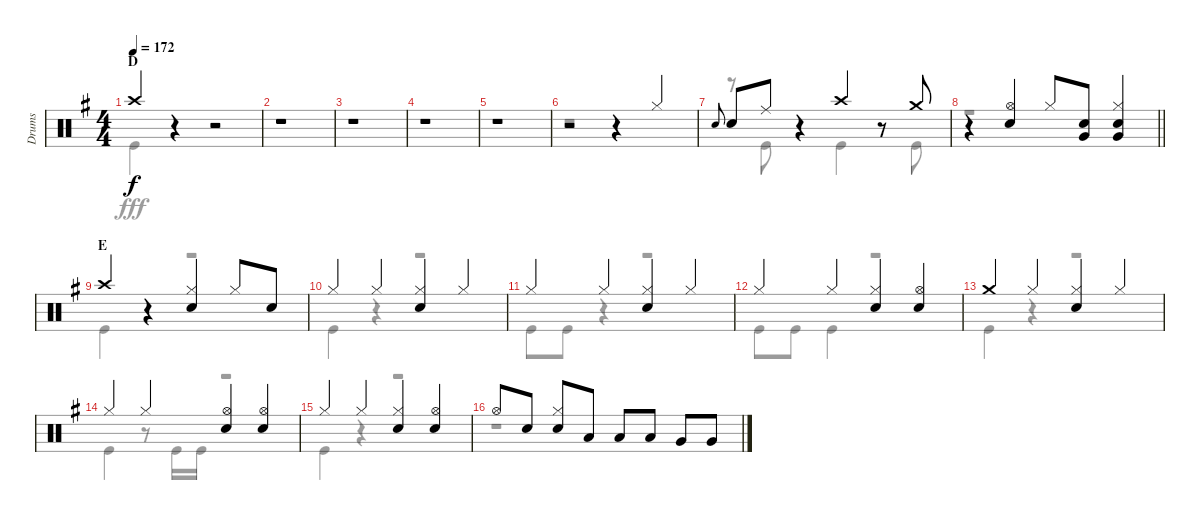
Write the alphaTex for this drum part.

\track ("Drums" "Drums") {instrument percussion}
\staff {score}
\articulation defaults
\voice
\ts (4 4)
\section ("" "D")
\tempo 172
\clef neutral
\ks g "Crash high (hit)".4{dy f}
r.4 r.2 |
r.1 |
r.1 |
r.1 |
r.1 |
r.2 r.4 "Hi-Hat (closed)".4 |
"Snare (hit) 2".8{gr onbeat} "Snare (hit) 2".8 "Ride (middle)".8 r.4 "Crash high (hit)".4 r.8 "Crash medium (hit)".8 |
\barLineRight lightlight
r.4 ("Hi-Hat (open)" "Snare (hit) 2").4 "Hi-Hat (closed)".8 ("Snare (hit) 2" "Very Low Tom (hit)").8 ("Hi-Hat (closed)" "Snare (hit) 2" "Very Low Tom (hit)").4 |
\section ("" "E")
"Crash high (hit)".4 r.4 ("Hi-Hat (closed)" "Snare (hit) 2").4 "Hi-Hat (closed)".8 "Snare (hit) 2".8 |
"Hi-Hat (closed)".4 "Hi-Hat (closed)".4 ("Hi-Hat (closed)" "Snare (hit) 2").4 "Hi-Hat (closed)".4 |
"Hi-Hat (closed)".4 "Hi-Hat (closed)".4 ("Hi-Hat (closed)" "Snare (hit) 2").4 "Hi-Hat (closed)".4 |
"Hi-Hat (closed)".4 "Hi-Hat (closed)".4 ("Hi-Hat (closed)" "Snare (hit) 2").4 ("Hi-Hat (open)" "Snare (hit) 2").4 |
"Crash medium (hit)".4 "Hi-Hat (closed)".4 ("Hi-Hat (closed)" "Snare (hit) 2").4 "Hi-Hat (closed)".4 |
"Hi-Hat (closed)".4 "Hi-Hat (closed)".4 ("Hi-Hat (open)" "Snare (hit) 2").4 ("Hi-Hat (open)" "Snare (hit) 2").4 |
"Hi-Hat (closed)".4 "Hi-Hat (closed)".4 ("Hi-Hat (closed)" "Snare (hit) 2").4 ("Hi-Hat (open)" "Snare (hit) 2").4 |
"Hi-Hat (open)".8 "Snare (hit) 2".8 ("Hi-Hat (closed)" "Snare (hit) 2").8 "Low Tom (hit)".8 "Low Tom (hit)".8 "Low Tom (hit)".8 "Very Low Tom (hit)".8 "Very Low Tom (hit)".8
\voice
\clef neutral
\ottava regular
\simile none
\ks g "Kick (hit)".4{dy fff}
r.4 r.2 |
r.1 |
r.1 |
r.1 |
r.1 |
r.1 |
r.8 "Kick (hit)".8 r.4 "Kick (hit)".4 r.8 "Kick (hit)".8 |
\barLineRight lightlight
r.1 |
"Kick (hit)".4 r.4 r.2 |
"Kick (hit)".4 r.4 r.2 |
"Kick (hit)".8 "Kick (hit)".8 r.4 r.2 |
"Kick (hit)".8 "Kick (hit)".8 "Kick (hit)".4 r.2 |
"Kick (hit)".4 r.4 r.2 |
"Kick (hit)".4 r.8 "Kick (hit)".16 "Kick (hit)".16 r.2 |
"Kick (hit)".4 r.4 r.2 |
r.1
